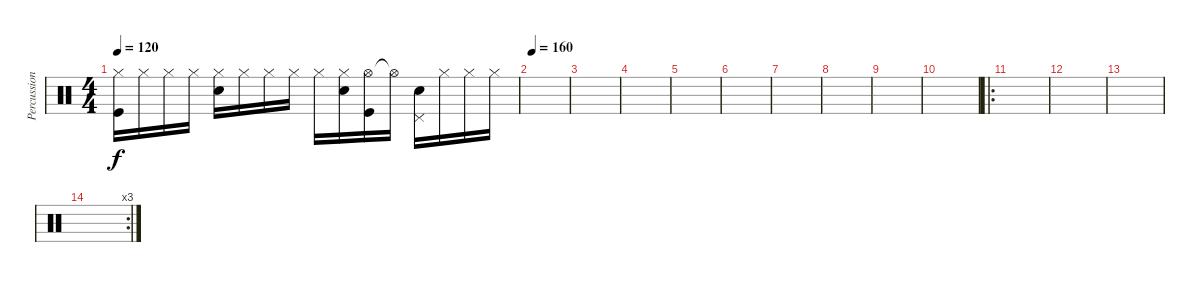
\track ("Percussion" "Percussion") {instrument percussion}
\staff {score}
\articulation defaults
\ts (4 4)
\tempo 120
\clef neutral
\ks c
("Hi-Hat (closed)" "Kick (hit)").16{dy f volume 13} "Hi-Hat (closed)".16 "Hi-Hat (closed)".16 "Hi-Hat (closed)".16 ("Hi-Hat (closed)" "Snare (hit) 2").16 "Hi-Hat (closed)".16 "Hi-Hat (closed)".16 "Hi-Hat (closed)".16 "Hi-Hat (closed)".16 ("Hi-Hat (closed)" "Snare (hit) 2").16 ("Hi-Hat (open)" "Kick (hit)").16 "Hi-Hat (open)"{t}.16 ("Pedal Hi-Hat (hit)" "Snare (hit) 2").16 "Hi-Hat (closed)".16 "Hi-Hat (closed)".16 "Hi-Hat (closed)".16 |
\tempo 160
|
|
|
|
|
|
|
|
|
\ro
|
|
|
\rc 3
